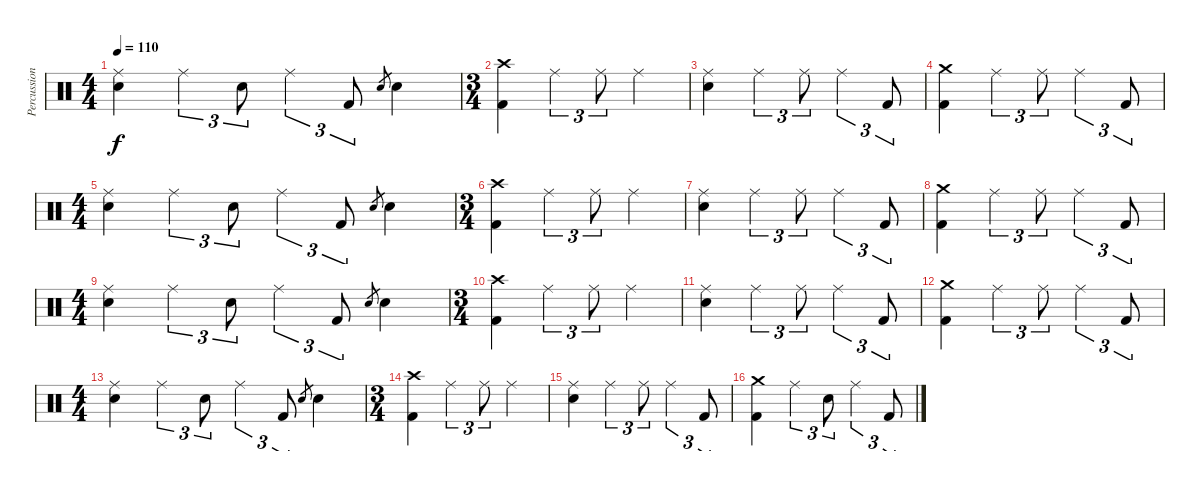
\track ("Percussion" "Percussion") {instrument percussion}
\staff {score}
\articulation defaults
\ts (4 4)
\tempo 110
\clef neutral
\ks c
("Ride (middle)" "Electric Snare (hit)").4{dy f} "Ride (middle)".4{tu (3 2)} "Electric Snare (hit)".8{tu (3 2)} "Ride (middle)".4{tu (3 2)} "Kick (hit) 2".8{tu (3 2)} "Electric Snare (hit)".8{gr} "Electric Snare (hit)".4 |
\ts (3 4)
("Crash high (hit)" "Kick (hit) 2").4 "Ride (middle)".4{tu (3 2)} "Ride (middle)".8{tu (3 2)} "Ride (middle)".4 |
("Ride (middle)" "Electric Snare (hit)").4 "Ride (middle)".4{tu (3 2)} "Ride (middle)".8{tu (3 2)} "Ride (middle)".4{tu (3 2)} "Kick (hit) 2".8{tu (3 2)} |
("Crash medium (hit)" "Kick (hit) 2").4 "Ride (middle)".4{tu (3 2)} "Ride (middle)".8{tu (3 2)} "Ride (middle)".4{tu (3 2)} "Kick (hit) 2".8{tu (3 2)} |
\ts (4 4)
("Ride (middle)" "Electric Snare (hit)").4 "Ride (middle)".4{tu (3 2)} "Electric Snare (hit)".8{tu (3 2)} "Ride (middle)".4{tu (3 2)} "Kick (hit) 2".8{tu (3 2)} "Electric Snare (hit)".8{gr} "Electric Snare (hit)".4 |
\ts (3 4)
("Crash high (hit)" "Kick (hit) 2").4 "Ride (middle)".4{tu (3 2)} "Ride (middle)".8{tu (3 2)} "Ride (middle)".4 |
("Ride (middle)" "Electric Snare (hit)").4 "Ride (middle)".4{tu (3 2)} "Ride (middle)".8{tu (3 2)} "Ride (middle)".4{tu (3 2)} "Kick (hit) 2".8{tu (3 2)} |
("Crash medium (hit)" "Kick (hit) 2").4 "Ride (middle)".4{tu (3 2)} "Ride (middle)".8{tu (3 2)} "Ride (middle)".4{tu (3 2)} "Kick (hit) 2".8{tu (3 2)} |
\ts (4 4)
("Ride (middle)" "Electric Snare (hit)").4 "Ride (middle)".4{tu (3 2)} "Electric Snare (hit)".8{tu (3 2)} "Ride (middle)".4{tu (3 2)} "Kick (hit) 2".8{tu (3 2)} "Electric Snare (hit)".8{gr} "Electric Snare (hit)".4 |
\ts (3 4)
("Crash high (hit)" "Kick (hit) 2").4 "Ride (middle)".4{tu (3 2)} "Ride (middle)".8{tu (3 2)} "Ride (middle)".4 |
("Ride (middle)" "Electric Snare (hit)").4 "Ride (middle)".4{tu (3 2)} "Ride (middle)".8{tu (3 2)} "Ride (middle)".4{tu (3 2)} "Kick (hit) 2".8{tu (3 2)} |
("Crash medium (hit)" "Kick (hit) 2").4 "Ride (middle)".4{tu (3 2)} "Ride (middle)".8{tu (3 2)} "Ride (middle)".4{tu (3 2)} "Kick (hit) 2".8{tu (3 2)} |
\ts (4 4)
("Ride (middle)" "Electric Snare (hit)").4 "Ride (middle)".4{tu (3 2)} "Electric Snare (hit)".8{tu (3 2)} "Ride (middle)".4{tu (3 2)} "Kick (hit) 2".8{tu (3 2)} "Electric Snare (hit)".8{gr} "Electric Snare (hit)".4 |
\ts (3 4)
("Crash high (hit)" "Kick (hit) 2").4 "Ride (middle)".4{tu (3 2)} "Ride (middle)".8{tu (3 2)} "Ride (middle)".4 |
("Ride (middle)" "Electric Snare (hit)").4 "Ride (middle)".4{tu (3 2)} "Ride (middle)".8{tu (3 2)} "Ride (middle)".4{tu (3 2)} "Kick (hit) 2".8{tu (3 2)} |
("Crash medium (hit)" "Kick (hit) 2").4 "Ride (middle)".4{tu (3 2)} "Electric Snare (hit)".8{tu (3 2)} "Ride (middle)".4{tu (3 2)} "Kick (hit) 2".8{tu (3 2)}
